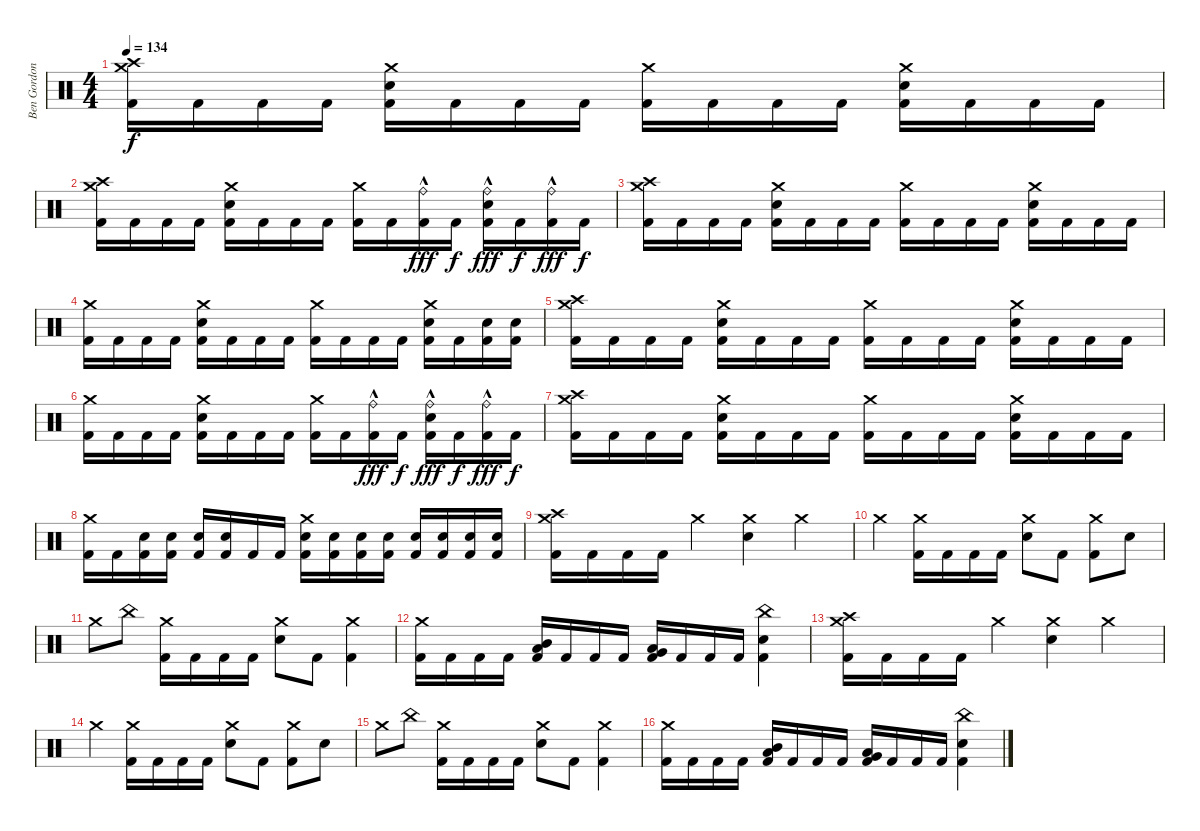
\track ("Ben Gordon" "Ben Gordon") {instrument percussion}
\staff {score}
\articulation defaults
\ts (4 4)
\tempo 134
\clef neutral
\ks c
("Crash medium (hit)" "Crash high (hit)" "Kick (hit) 2").16{dy f} "Kick (hit) 2".16 "Kick (hit) 2".16 "Kick (hit) 2".16 ("Crash medium (hit)" "Electric Snare (hit)" "Kick (hit) 2").16 "Kick (hit) 2".16 "Kick (hit) 2".16 "Kick (hit) 2".16 ("Crash medium (hit)" "Kick (hit) 2").16 "Kick (hit) 2".16 "Kick (hit) 2".16 "Kick (hit) 2".16 ("Crash medium (hit)" "Electric Snare (hit)" "Kick (hit) 2").16 "Kick (hit) 2".16 "Kick (hit) 2".16 "Kick (hit) 2".16 |
("Crash medium (hit)" "Crash high (hit)" "Kick (hit) 2").16 "Kick (hit) 2".16 "Kick (hit) 2".16 "Kick (hit) 2".16 ("Crash medium (hit)" "Electric Snare (hit)" "Kick (hit) 2").16 "Kick (hit) 2".16 "Kick (hit) 2".16 "Kick (hit) 2".16 ("Crash medium (hit)" "Kick (hit) 2").16 "Kick (hit) 2".16 ("Ride (bell)"{hac} "Kick (hit) 2").16{dy fff} "Kick (hit) 2".16{dy f} ("Ride (bell)"{hac} "Electric Snare (hit)" "Kick (hit) 2").16{dy fff} "Kick (hit) 2".16{dy f} ("Ride (bell)"{hac} "Kick (hit) 2").16{dy fff} "Kick (hit) 2".16{dy f} |
("Crash medium (hit)" "Crash high (hit)" "Kick (hit) 2").16 "Kick (hit) 2".16 "Kick (hit) 2".16 "Kick (hit) 2".16 ("Crash medium (hit)" "Electric Snare (hit)" "Kick (hit) 2").16 "Kick (hit) 2".16 "Kick (hit) 2".16 "Kick (hit) 2".16 ("Crash medium (hit)" "Kick (hit) 2").16 "Kick (hit) 2".16 "Kick (hit) 2".16 "Kick (hit) 2".16 ("Crash medium (hit)" "Electric Snare (hit)" "Kick (hit) 2").16 "Kick (hit) 2".16 "Kick (hit) 2".16 "Kick (hit) 2".16 |
("Crash medium (hit)" "Kick (hit) 2").16 "Kick (hit) 2".16 "Kick (hit) 2".16 "Kick (hit) 2".16 ("Crash medium (hit)" "Electric Snare (hit)" "Kick (hit) 2").16 "Kick (hit) 2".16 "Kick (hit) 2".16 "Kick (hit) 2".16 ("Crash medium (hit)" "Kick (hit) 2").16 "Kick (hit) 2".16 "Kick (hit) 2".16 "Kick (hit) 2".16 ("Crash medium (hit)" "Electric Snare (hit)" "Kick (hit) 2").16 "Kick (hit) 2".16 ("Electric Snare (hit)" "Kick (hit) 2").16 ("Electric Snare (hit)" "Kick (hit) 2").16 |
("Crash medium (hit)" "Crash high (hit)" "Kick (hit) 2").16 "Kick (hit) 2".16 "Kick (hit) 2".16 "Kick (hit) 2".16 ("Crash medium (hit)" "Electric Snare (hit)" "Kick (hit) 2").16 "Kick (hit) 2".16 "Kick (hit) 2".16 "Kick (hit) 2".16 ("Crash medium (hit)" "Kick (hit) 2").16 "Kick (hit) 2".16 "Kick (hit) 2".16 "Kick (hit) 2".16 ("Crash medium (hit)" "Electric Snare (hit)" "Kick (hit) 2").16 "Kick (hit) 2".16 "Kick (hit) 2".16 "Kick (hit) 2".16 |
("Crash medium (hit)" "Kick (hit) 2").16 "Kick (hit) 2".16 "Kick (hit) 2".16 "Kick (hit) 2".16 ("Crash medium (hit)" "Electric Snare (hit)" "Kick (hit) 2").16 "Kick (hit) 2".16 "Kick (hit) 2".16 "Kick (hit) 2".16 ("Crash medium (hit)" "Kick (hit) 2").16 "Kick (hit) 2".16 ("Ride (bell)"{hac} "Kick (hit) 2").16{dy fff} "Kick (hit) 2".16{dy f} ("Ride (bell)"{hac} "Electric Snare (hit)" "Kick (hit) 2").16{dy fff} "Kick (hit) 2".16{dy f} ("Ride (bell)"{hac} "Kick (hit) 2").16{dy fff} "Kick (hit) 2".16{dy f} |
("Crash medium (hit)" "Crash high (hit)" "Kick (hit) 2").16 "Kick (hit) 2".16 "Kick (hit) 2".16 "Kick (hit) 2".16 ("Crash medium (hit)" "Electric Snare (hit)" "Kick (hit) 2").16 "Kick (hit) 2".16 "Kick (hit) 2".16 "Kick (hit) 2".16 ("Crash medium (hit)" "Kick (hit) 2").16 "Kick (hit) 2".16 "Kick (hit) 2".16 "Kick (hit) 2".16 ("Crash medium (hit)" "Electric Snare (hit)" "Kick (hit) 2").16 "Kick (hit) 2".16 "Kick (hit) 2".16 "Kick (hit) 2".16 |
("Crash medium (hit)" "Kick (hit) 2").16 "Kick (hit) 2".16 ("Electric Snare (hit)" "Kick (hit) 2").16 ("Electric Snare (hit)" "Kick (hit) 2").16 ("Electric Snare (hit)" "Kick (hit) 2").16 ("Electric Snare (hit)" "Kick (hit) 2").16 "Kick (hit) 2".16 "Kick (hit) 2".16 ("Crash medium (hit)" "Electric Snare (hit)" "Kick (hit) 2").16 ("Electric Snare (hit)" "Kick (hit) 2").16 ("Electric Snare (hit)" "Kick (hit) 2").16 ("Electric Snare (hit)" "Kick (hit) 2").16 ("Electric Snare (hit)" "Kick (hit) 2").16 ("Electric Snare (hit)" "Kick (hit) 2").16 ("Electric Snare (hit)" "Kick (hit) 2").16 ("Electric Snare (hit)" "Kick (hit) 2").16 |
("Crash medium (hit)" "Crash high (hit)" "Kick (hit) 2").16 "Kick (hit) 2".16 "Kick (hit) 2".16 "Kick (hit) 2".16 "Crash medium (hit)".4 ("Crash medium (hit)" "Electric Snare (hit)").4 "Crash medium (hit)".4 |
"Crash medium (hit)".4 ("Crash medium (hit)" "Kick (hit) 2").16 "Kick (hit) 2".16 "Kick (hit) 2".16 "Kick (hit) 2".16 ("Crash medium (hit)" "Electric Snare (hit)").8 "Kick (hit) 2".8 ("Crash medium (hit)" "Kick (hit) 2").8 "Electric Snare (hit)".8 |
"Crash medium (hit)".8 "China (hit)".8 ("Crash medium (hit)" "Kick (hit) 2").16 "Kick (hit) 2".16 "Kick (hit) 2".16 "Kick (hit) 2".16 ("Crash medium (hit)" "Electric Snare (hit)").8 "Kick (hit) 2".8 ("Crash medium (hit)" "Kick (hit) 2").4 |
("Crash medium (hit)" "Kick (hit) 2").16 "Kick (hit) 2".16 "Kick (hit) 2".16 "Kick (hit) 2".16 ("Mid Tom (hit)" "Low Tom (hit)" "Kick (hit) 2").16 "Kick (hit) 2".16 "Kick (hit) 2".16 "Kick (hit) 2".16 ("Low Floor Tom (hit)" "Very Low Tom (hit)" "Kick (hit) 2").16 "Kick (hit) 2".16 "Kick (hit) 2".16 "Kick (hit) 2".16 ("China (hit)" "Electric Snare (hit)" "Kick (hit) 2").4 |
("Crash medium (hit)" "Crash high (hit)" "Kick (hit) 2").16 "Kick (hit) 2".16 "Kick (hit) 2".16 "Kick (hit) 2".16 "Crash medium (hit)".4 ("Crash medium (hit)" "Electric Snare (hit)").4 "Crash medium (hit)".4 |
"Crash medium (hit)".4 ("Crash medium (hit)" "Kick (hit) 2").16 "Kick (hit) 2".16 "Kick (hit) 2".16 "Kick (hit) 2".16 ("Crash medium (hit)" "Electric Snare (hit)").8 "Kick (hit) 2".8 ("Crash medium (hit)" "Kick (hit) 2").8 "Electric Snare (hit)".8 |
"Crash medium (hit)".8 "China (hit)".8 ("Crash medium (hit)" "Kick (hit) 2").16 "Kick (hit) 2".16 "Kick (hit) 2".16 "Kick (hit) 2".16 ("Crash medium (hit)" "Electric Snare (hit)").8 "Kick (hit) 2".8 ("Crash medium (hit)" "Kick (hit) 2").4 |
("Crash medium (hit)" "Kick (hit) 2").16 "Kick (hit) 2".16 "Kick (hit) 2".16 "Kick (hit) 2".16 ("Mid Tom (hit)" "Low Tom (hit)" "Kick (hit) 2").16 "Kick (hit) 2".16 "Kick (hit) 2".16 "Kick (hit) 2".16 ("Low Floor Tom (hit)" "Very Low Tom (hit)" "Kick (hit) 2").16 "Kick (hit) 2".16 "Kick (hit) 2".16 "Kick (hit) 2".16 ("China (hit)" "Electric Snare (hit)" "Kick (hit) 2").4
